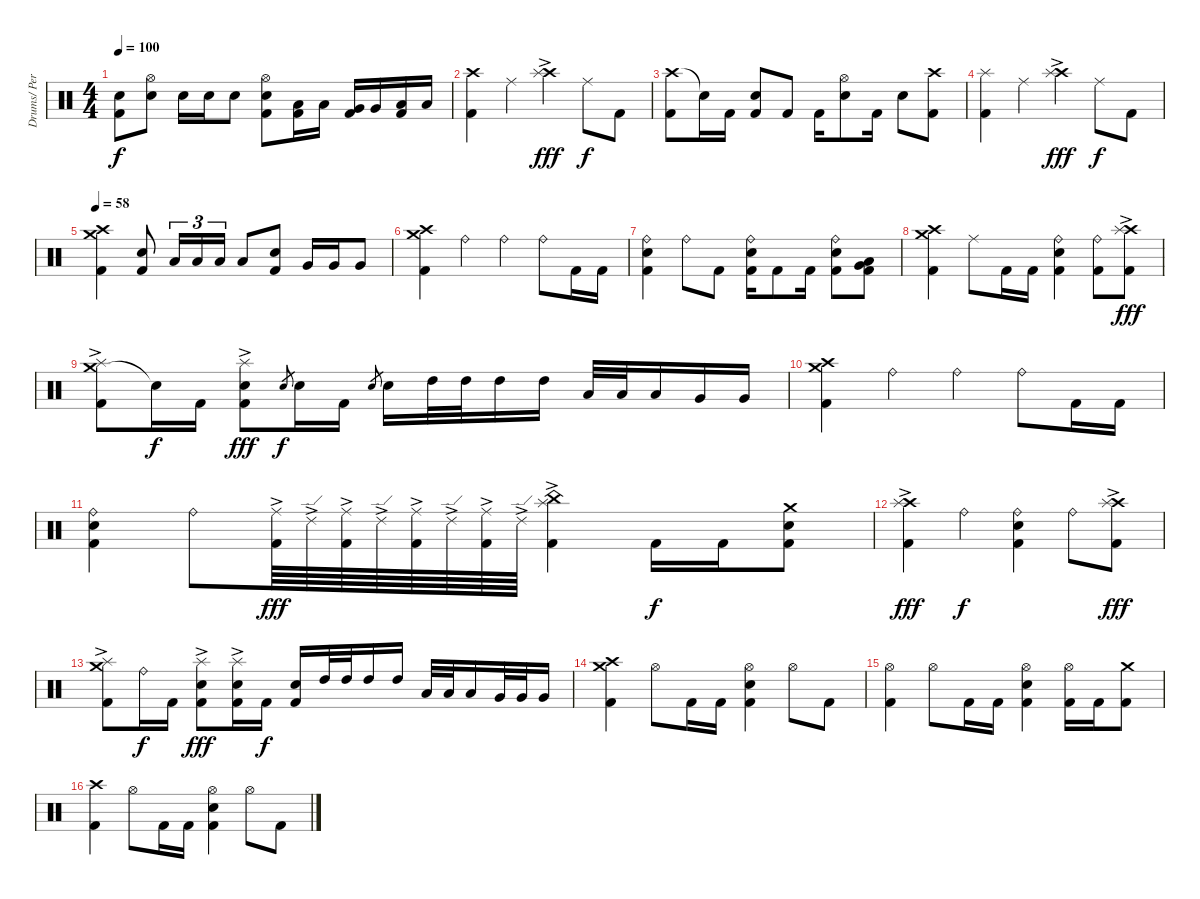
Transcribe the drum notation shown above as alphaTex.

\track ("Drums/ Percussion - Tony Laureano" "Drums/ Per") {instrument percussion}
\staff {score}
\articulation defaults
\ts (4 4)
\tempo 100
\clef neutral
\ks c
("Electric Snare (hit)" "Kick (hit) 2").8{dy f} ("Hi-Hat (open)" "Electric Snare (hit)").8 "Electric Snare (hit)".16 "Electric Snare (hit)".16 "Electric Snare (hit)".8 ("Hi-Hat (open)" "Electric Snare (hit)" "Kick (hit) 2").8 ("Low Tom (hit)" "Kick (hit) 2").16 "Low Tom (hit)".16 ("Very Low Tom (hit)" "Kick (hit) 2").16 "Very Low Tom (hit)".16 ("Low Floor Tom (hit)" "Kick (hit) 2").16 "Low Floor Tom (hit)".16 |
("Crash high (hit)" "Kick (hit) 2").4 "Ride (middle)".4 ("Crash high (hit)" "Splash (hit)"{ac}).4{dy fff} "Ride (middle)".8{dy f} "Kick (hit) 2".8 |
("Crash high (hit)" "Kick (hit) 2").8 "Snare (hit)"{t}.16 "Kick (hit) 2".16 ("Electric Snare (hit)" "Kick (hit) 2").8 "Kick (hit) 2".8 "Kick (hit) 2".16 ("Hi-Hat (open)" "Electric Snare (hit)").8 "Kick (hit) 2".16 "Electric Snare (hit)".8 ("Crash high (hit)" "Kick (hit) 2").8 |
("Splash (hit)" "Kick (hit) 2").4 "Ride (middle)".4 ("Crash high (hit)" "Splash (hit)"{ac}).4{dy fff} "Ride (middle)".8{dy f} "Kick (hit) 2".8 |
\tempo 58
("Crash high (hit)" "Crash medium (hit)" "Kick (hit) 2").4 ("Electric Snare (hit)" "Kick (hit) 2").8 "Low Tom (hit)".16{tu (3 2)} "Low Tom (hit)".16{tu (3 2)} "Low Tom (hit)".16{tu (3 2)} "Low Tom (hit)".8 ("Electric Snare (hit)" "Kick (hit) 2").8 "Very Low Tom (hit)".16 "Very Low Tom (hit)".16 "Very Low Tom (hit)".8 |
("Crash high (hit)" "Crash medium (hit)" "Kick (hit) 2").4 "Ride (bell)".4 "Ride (bell)".4 "Ride (bell)".8 "Kick (hit) 2".16 "Kick (hit) 2".16 |
("Ride (bell)" "Electric Snare (hit)" "Kick (hit) 2").4 "Ride (bell)".8 "Kick (hit) 2".8 ("Ride (bell)" "Electric Snare (hit)" "Kick (hit) 2").16 "Kick (hit) 2".8 "Kick (hit) 2".16 ("Ride (bell)" "Electric Snare (hit)" "Kick (hit) 2").8 ("Very Low Tom (hit)" "Low Floor Tom (hit)" "Kick (hit) 2").8 |
("Crash medium (hit)" "Crash high (hit)" "Kick (hit) 2").4 "Ride (middle)".8 "Kick (hit) 2".16 "Kick (hit) 2".16 ("Ride (bell)" "Electric Snare (hit)" "Kick (hit) 2").4 ("Ride (bell)" "Kick (hit) 2").8 ("Crash high (hit)" "Splash (hit)"{ac} "Kick (hit) 2").8{dy fff} |
("Crash medium (hit)" "Splash (hit)"{ac} "Kick (hit) 2").8 "Snare (hit)"{t}.16{dy f} "Kick (hit) 2".16 ("Splash (hit)"{ac} "Electric Snare (hit)" "Kick (hit) 2").8{dy fff} "Electric Snare (hit)".8{gr dy f} "Electric Snare (hit)".16 "Kick (hit) 2".16 "Electric Snare (hit)".8{gr} "Electric Snare (hit)".16 "High Tom (hit)".32 "High Tom (hit)".32 "High Tom (hit)".16 "High Tom (hit)".16 "Low Tom (hit)".32 "Low Tom (hit)".32 "Low Tom (hit)".16 "Very Low Tom (hit)".16 "Very Low Tom (hit)".16 |
("Crash high (hit)" "Crash medium (hit)" "Kick (hit) 2").4 "Ride (bell)".4 "Ride (bell)".4 "Ride (bell)".8 "Kick (hit) 2".16 "Kick (hit) 2".16 |
("Ride (bell)" "Electric Snare (hit)" "Kick (hit) 2").4 "Ride (bell)".8 ("Ride (middle)"{ac} "Kick (hit) 2").64{dy fff} "Ride (edge) 2"{ac}.64 ("Ride (middle)"{ac} "Kick (hit) 2").64 "Ride (edge) 2"{ac}.64 ("Ride (middle)"{ac} "Kick (hit) 2").64 "Ride (edge) 2"{ac}.64 ("Ride (middle)"{ac} "Kick (hit) 2").64 "Ride (edge) 2"{ac}.64 ("China (hit)" "Splash (hit)"{ac} "Kick (hit) 2").4 "Kick (hit) 2".16{dy f} "Kick (hit) 2".16 ("Crash medium (hit)" "Electric Snare (hit)" "Kick (hit) 2").8 |
("Crash high (hit)" "Splash (hit)"{ac} "Kick (hit) 2").4{dy fff} "Ride (bell)".4{dy f} ("Ride (bell)" "Electric Snare (hit)" "Kick (hit) 2").4 "Ride (bell)".8 ("Crash high (hit)" "Splash (hit)"{ac} "Kick (hit) 2").8{dy fff} |
("Crash medium (hit)" "Splash (hit)"{ac} "Kick (hit) 2").8 "Ride (bell)".16{dy f} "Kick (hit) 2".16 ("Splash (hit)"{ac} "Electric Snare (hit)" "Kick (hit) 2").8{dy fff} ("Splash (hit)"{ac} "Electric Snare (hit)" "Kick (hit) 2").16 "Kick (hit) 2".16{dy f} ("Electric Snare (hit)" "Kick (hit) 2").16 "High Tom (hit)".32 "High Tom (hit)".32 "High Tom (hit)".16 "High Tom (hit)".16 "Low Tom (hit)".32 "Low Tom (hit)".32 "Low Tom (hit)".16 "Very Low Tom (hit)".32 "Very Low Tom (hit)".32 "Very Low Tom (hit)".16 |
("Crash high (hit)" "Crash medium (hit)" "Kick (hit) 2").4 "Hi-Hat (open)".8 "Kick (hit) 2".16 "Kick (hit) 2".16 ("Hi-Hat (open)" "Electric Snare (hit)" "Kick (hit) 2").4 "Hi-Hat (open)".8 "Kick (hit) 2".8 |
("Hi-Hat (open)" "Kick (hit) 2").4 "Hi-Hat (open)".8 "Kick (hit) 2".16 "Kick (hit) 2".16 ("Hi-Hat (open)" "Electric Snare (hit)" "Kick (hit) 2").4 ("Hi-Hat (open)" "Kick (hit) 2").16 "Kick (hit) 2".16 ("Crash medium (hit)" "Kick (hit) 2").8 |
("Crash high (hit)" "Kick (hit) 2").4 "Hi-Hat (open)".8 "Kick (hit) 2".16 "Kick (hit) 2".16 ("Hi-Hat (open)" "Electric Snare (hit)" "Kick (hit) 2").4 "Hi-Hat (open)".8 "Kick (hit) 2".8
